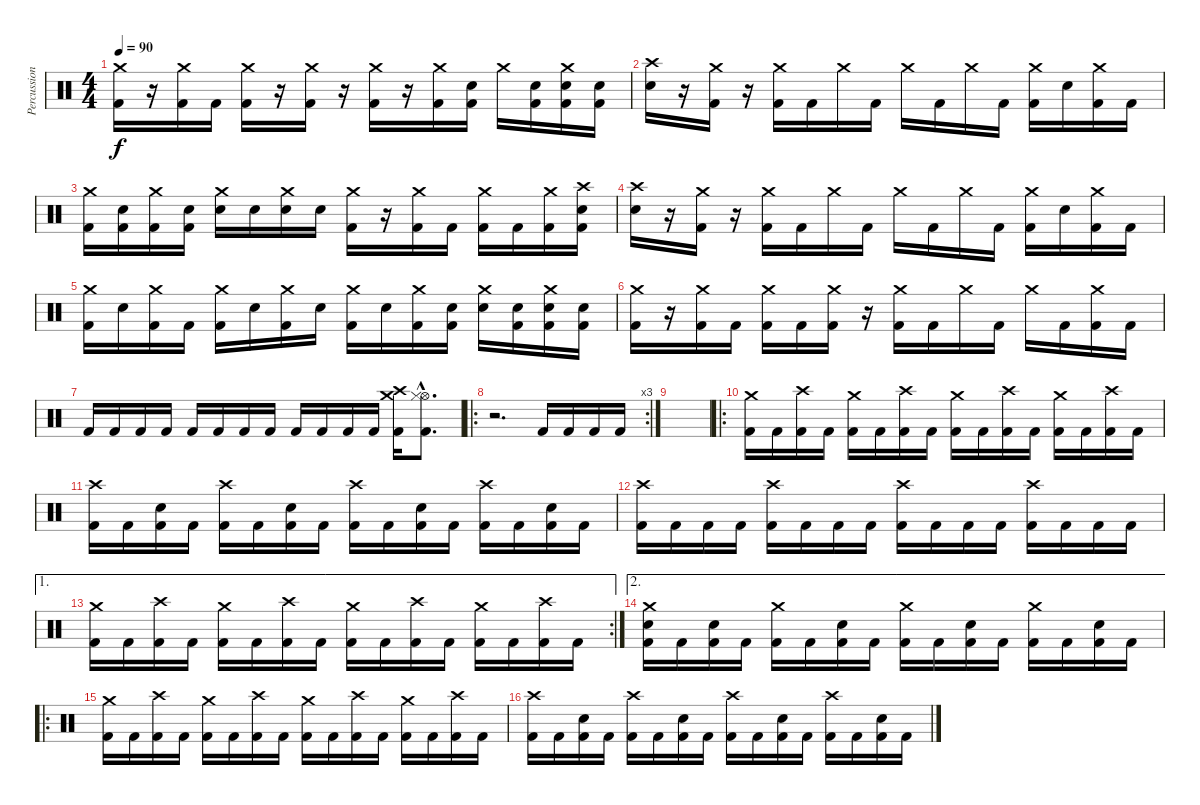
\track ("Percussion" "Percussion") {instrument percussion}
\staff {score}
\articulation defaults
\ts (4 4)
\tempo 90
\clef neutral
\ks c
("Crash medium (hit)" "Kick (hit) 2").16{dy f} r.16 ("Crash medium (hit)" "Kick (hit) 2").16 "Kick (hit) 2".16 ("Crash medium (hit)" "Kick (hit) 2").16 r.16 ("Crash medium (hit)" "Kick (hit) 2").16 r.16 ("Crash medium (hit)" "Kick (hit) 2").16 r.16 ("Crash medium (hit)" "Kick (hit) 2").16 ("Electric Snare (hit)" "Kick (hit) 2").16 "Crash medium (hit)".16 ("Electric Snare (hit)" "Kick (hit) 2").16 ("Electric Snare (hit)" "Crash medium (hit)" "Kick (hit) 2").16 ("Electric Snare (hit)" "Kick (hit) 2").16 |
("Crash high (hit)" "Electric Snare (hit)").16 r.16 ("Crash medium (hit)" "Kick (hit) 2").16 r.16 ("Crash medium (hit)" "Kick (hit) 2").16 "Kick (hit) 2".16 "Crash medium (hit)".16 "Kick (hit) 2".16 "Crash medium (hit)".16 "Kick (hit) 2".16 "Crash medium (hit)".16 "Kick (hit) 2".16 ("Crash medium (hit)" "Kick (hit) 2").16 "Electric Snare (hit)".16 ("Crash medium (hit)" "Kick (hit) 2").16 "Kick (hit) 2".16 |
("Crash medium (hit)" "Kick (hit) 2").16 ("Electric Snare (hit)" "Kick (hit) 2").16 ("Crash medium (hit)" "Kick (hit) 2").16 ("Electric Snare (hit)" "Kick (hit) 2").16 ("Electric Snare (hit)" "Crash medium (hit)").16 "Electric Snare (hit)".16 ("Electric Snare (hit)" "Crash medium (hit)").16 "Electric Snare (hit)".16 ("Crash medium (hit)" "Kick (hit) 2").16 r.16 ("Crash medium (hit)" "Kick (hit) 2").16 "Kick (hit) 2".16 ("Crash medium (hit)" "Kick (hit) 2").16 "Kick (hit) 2".16 ("Crash medium (hit)" "Kick (hit) 2").16 ("Crash high (hit)" "Electric Snare (hit)" "Kick (hit) 2").16 |
("Crash high (hit)" "Electric Snare (hit)").16 r.16 ("Crash medium (hit)" "Kick (hit) 2").16 r.16 ("Crash medium (hit)" "Kick (hit) 2").16 "Kick (hit) 2".16 "Crash medium (hit)".16 "Kick (hit) 2".16 "Crash medium (hit)".16 "Kick (hit) 2".16 "Crash medium (hit)".16 "Kick (hit) 2".16 ("Crash medium (hit)" "Kick (hit) 2").16 "Electric Snare (hit)".16 ("Crash medium (hit)" "Kick (hit) 2").16 "Kick (hit) 2".16 |
("Crash medium (hit)" "Kick (hit) 2").16 "Snare (hit)".16 ("Crash medium (hit)" "Kick (hit) 2").16 "Kick (hit) 2".16 ("Crash medium (hit)" "Kick (hit) 2").16 "Snare (hit)".16 ("Crash medium (hit)" "Kick (hit) 2").16 "Snare (hit)".16 ("Crash medium (hit)" "Kick (hit) 2").16 "Snare (hit)".16 ("Crash medium (hit)" "Kick (hit) 2").16 ("Electric Snare (hit)" "Kick (hit) 2").16 ("Crash medium (hit)" "Snare (hit)").16 ("Electric Snare (hit)" "Kick (hit) 2").16 ("Electric Snare (hit)" "Crash medium (hit)" "Kick (hit) 2").16 ("Electric Snare (hit)" "Kick (hit) 2").16 |
("Crash medium (hit)" "Kick (hit) 2").16 r.16 ("Crash medium (hit)" "Kick (hit) 2").16 "Kick (hit) 2".16 ("Crash medium (hit)" "Kick (hit) 2").16 "Kick (hit) 2".16 ("Crash medium (hit)" "Kick (hit) 2").16 r.16 ("Crash medium (hit)" "Kick (hit) 2").16 "Kick (hit) 2".16 "Crash medium (hit)".16 "Kick (hit) 2".16 "Crash medium (hit)".16 "Kick (hit) 2".16 ("Crash medium (hit)" "Kick (hit) 2").16 "Kick (hit) 2".16 |
"Kick (hit) 2".16 "Kick (hit) 2".16 "Kick (hit) 2".16 "Kick (hit) 2".16 "Kick (hit) 2".16 "Kick (hit) 2".16 "Kick (hit) 2".16 "Kick (hit) 2".16 "Kick (hit) 2".16 "Kick (hit) 2".16 "Kick (hit) 2".16 "Kick (hit) 2".16 ("Crash high (hit)" "Crash medium (hit)" "Kick (hit) 2").16 ("Hi-Hat (open)"{hac} "Hi-Hat (closed)"{hac} "Kick (hit) 2"{hac}).8{d} |
\ro
\rc 3
r.2{d} "Kick (hit) 2".16 "Kick (hit) 2".16 "Kick (hit) 2".16 "Kick (hit) 2".16 |
|
\ro
("Crash medium (hit)" "Kick (hit) 2").16 "Kick (hit) 2".16 ("Crash high (hit)" "Kick (hit) 2").16 "Kick (hit) 2".16 ("Crash medium (hit)" "Kick (hit) 2").16 "Kick (hit) 2".16 ("Crash high (hit)" "Kick (hit) 2").16 "Kick (hit) 2".16 ("Crash medium (hit)" "Kick (hit) 2").16 "Kick (hit) 2".16 ("Crash high (hit)" "Kick (hit) 2").16 "Kick (hit) 2".16 ("Crash medium (hit)" "Kick (hit) 2").16 "Kick (hit) 2".16 ("Crash high (hit)" "Kick (hit) 2").16 "Kick (hit) 2".16 |
("Crash high (hit)" "Kick (hit) 2").16 "Kick (hit) 2".16 ("Electric Snare (hit)" "Kick (hit) 2").16 "Kick (hit) 2".16 ("Crash high (hit)" "Kick (hit) 2").16 "Kick (hit) 2".16 ("Electric Snare (hit)" "Kick (hit) 2").16 "Kick (hit) 2".16 ("Crash high (hit)" "Kick (hit) 2").16 "Kick (hit) 2".16 ("Electric Snare (hit)" "Kick (hit) 2").16 "Kick (hit) 2".16 ("Crash high (hit)" "Kick (hit) 2").16 "Kick (hit) 2".16 ("Electric Snare (hit)" "Kick (hit) 2").16 "Kick (hit) 2".16 |
("Crash high (hit)" "Kick (hit) 2").16 "Kick (hit) 2".16 "Kick (hit) 2".16 "Kick (hit) 2".16 ("Crash high (hit)" "Kick (hit) 2").16 "Kick (hit) 2".16 "Kick (hit) 2".16 "Kick (hit) 2".16 ("Crash high (hit)" "Kick (hit) 2").16 "Kick (hit) 2".16 "Kick (hit) 2".16 "Kick (hit) 2".16 ("Crash high (hit)" "Kick (hit) 2").16 "Kick (hit) 2".16 "Kick (hit) 2".16 "Kick (hit) 2".16 |
\ae 1
\rc 2
("Crash medium (hit)" "Kick (hit) 2").16 "Kick (hit) 2".16 ("Crash high (hit)" "Kick (hit) 2").16 "Kick (hit) 2".16 ("Crash medium (hit)" "Kick (hit) 2").16 "Kick (hit) 2".16 ("Crash high (hit)" "Kick (hit) 2").16 "Kick (hit) 2".16 ("Crash medium (hit)" "Kick (hit) 2").16 "Kick (hit) 2".16 ("Crash high (hit)" "Kick (hit) 2").16 "Kick (hit) 2".16 ("Crash medium (hit)" "Kick (hit) 2").16 "Kick (hit) 2".16 ("Crash high (hit)" "Kick (hit) 2").16 "Kick (hit) 2".16 |
\ae 2
("Crash medium (hit)" "Electric Snare (hit)" "Kick (hit) 2").16 "Kick (hit) 2".16 ("Electric Snare (hit)" "Kick (hit) 2").16 "Kick (hit) 2".16 ("Crash medium (hit)" "Kick (hit) 2").16 "Kick (hit) 2".16 ("Electric Snare (hit)" "Kick (hit) 2").16 "Kick (hit) 2".16 ("Crash medium (hit)" "Kick (hit) 2").16 "Kick (hit) 2".16 ("Electric Snare (hit)" "Kick (hit) 2").16 "Kick (hit) 2".16 ("Crash medium (hit)" "Kick (hit) 2").16 "Kick (hit) 2".16 ("Electric Snare (hit)" "Kick (hit) 2").16 "Kick (hit) 2".16 |
\ro
("Crash medium (hit)" "Kick (hit) 2").16 "Kick (hit) 2".16 ("Crash high (hit)" "Kick (hit) 2").16 "Kick (hit) 2".16 ("Crash medium (hit)" "Kick (hit) 2").16 "Kick (hit) 2".16 ("Crash high (hit)" "Kick (hit) 2").16 "Kick (hit) 2".16 ("Crash medium (hit)" "Kick (hit) 2").16 "Kick (hit) 2".16 ("Crash high (hit)" "Kick (hit) 2").16 "Kick (hit) 2".16 ("Crash medium (hit)" "Kick (hit) 2").16 "Kick (hit) 2".16 ("Crash high (hit)" "Kick (hit) 2").16 "Kick (hit) 2".16 |
("Crash high (hit)" "Kick (hit) 2").16 "Kick (hit) 2".16 ("Electric Snare (hit)" "Kick (hit) 2").16 "Kick (hit) 2".16 ("Crash high (hit)" "Kick (hit) 2").16 "Kick (hit) 2".16 ("Electric Snare (hit)" "Kick (hit) 2").16 "Kick (hit) 2".16 ("Crash high (hit)" "Kick (hit) 2").16 "Kick (hit) 2".16 ("Electric Snare (hit)" "Kick (hit) 2").16 "Kick (hit) 2".16 ("Crash high (hit)" "Kick (hit) 2").16 "Kick (hit) 2".16 ("Electric Snare (hit)" "Kick (hit) 2").16 "Kick (hit) 2".16
